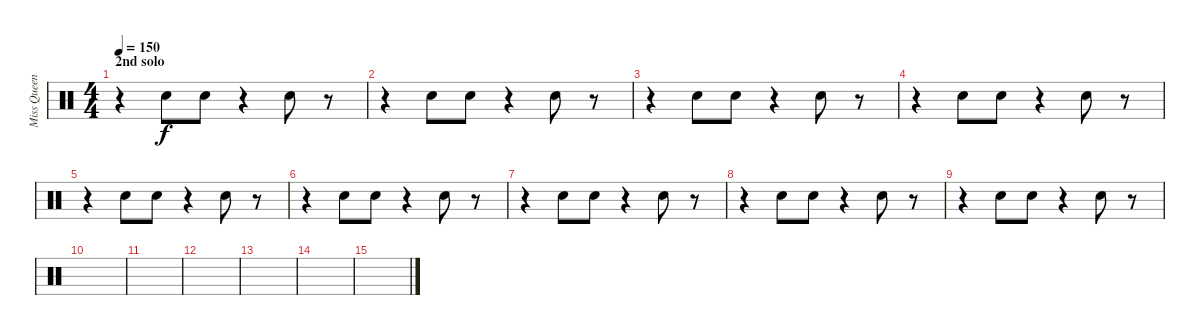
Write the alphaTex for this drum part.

\track ("Miss Queen B(rodie)" "Miss Queen") {instrument percussion}
\staff {score}
\articulation defaults
\ts (4 4)
\section ("" "2nd solo")
\tempo 150
\clef neutral
\ks c
r.4{dy f} "Hand Clap (hit)".8 "Hand Clap (hit)".8 r.4 "Hand Clap (hit)".8 r.8 |
r.4 "Hand Clap (hit)".8 "Hand Clap (hit)".8 r.4 "Hand Clap (hit)".8 r.8 |
r.4 "Hand Clap (hit)".8 "Hand Clap (hit)".8 r.4 "Hand Clap (hit)".8 r.8 |
r.4 "Hand Clap (hit)".8 "Hand Clap (hit)".8 r.4 "Hand Clap (hit)".8 r.8 |
\section ("" "")
r.4 "Hand Clap (hit)".8 "Hand Clap (hit)".8 r.4 "Hand Clap (hit)".8 r.8 |
r.4 "Hand Clap (hit)".8 "Hand Clap (hit)".8 r.4 "Hand Clap (hit)".8 r.8 |
r.4 "Hand Clap (hit)".8 "Hand Clap (hit)".8 r.4 "Hand Clap (hit)".8 r.8 |
r.4 "Hand Clap (hit)".8 "Hand Clap (hit)".8 r.4 "Hand Clap (hit)".8 r.8 |
\section ("" "")
r.4 "Hand Clap (hit)".8 "Hand Clap (hit)".8 r.4 "Hand Clap (hit)".8 r.8 |
|
\section ("" "")
|
|
|
|
\section ("" "")
